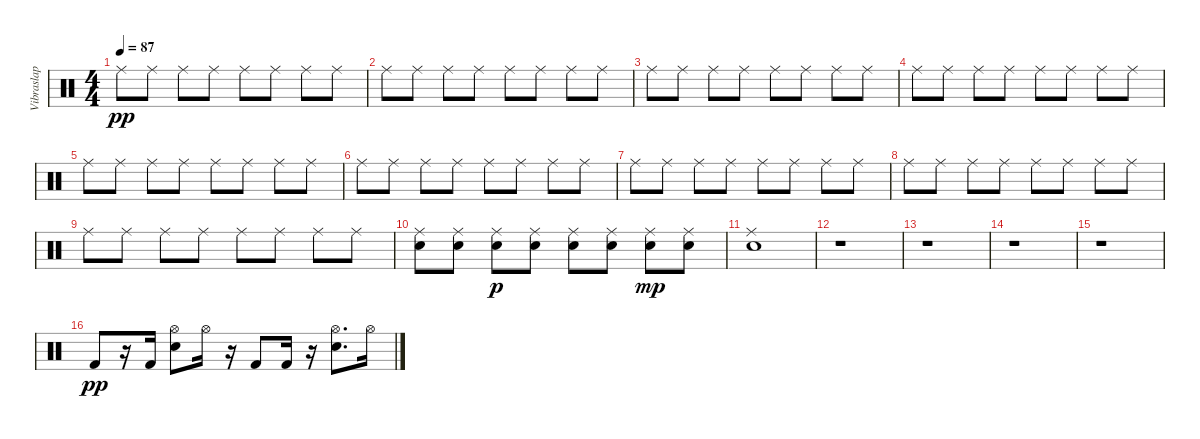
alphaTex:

\track ("Vibraslap" "Vibraslap") {instrument percussion}
\staff {score}
\articulation defaults
\ts (4 4)
\tempo 87
\clef neutral
\ks c "Ride (middle)".8{dy pp} "Ride (middle)".8 "Ride (middle)".8 "Ride (middle)".8 "Ride (middle)".8 "Ride (middle)".8 "Ride (middle)".8 "Ride (middle)".8
|
"Ride (middle)".8 "Ride (middle)".8 "Ride (middle)".8 "Ride (middle)".8 "Ride (middle)".8 "Ride (middle)".8 "Ride (middle)".8 "Ride (middle)".8 |
"Ride (middle)".8 "Ride (middle)".8 "Ride (middle)".8 "Ride (middle)".8 "Ride (middle)".8 "Ride (middle)".8 "Ride (middle)".8 "Ride (middle)".8 |
"Ride (middle)".8 "Ride (middle)".8 "Ride (middle)".8 "Ride (middle)".8 "Ride (middle)".8 "Ride (middle)".8 "Ride (middle)".8 "Ride (middle)".8 |
"Ride (middle)".8 "Ride (middle)".8 "Ride (middle)".8 "Ride (middle)".8 "Ride (middle)".8 "Ride (middle)".8 "Ride (middle)".8 "Ride (middle)".8 |
"Ride (middle)".8 "Ride (middle)".8 "Ride (middle)".8 "Ride (middle)".8 "Ride (middle)".8 "Ride (middle)".8 "Ride (middle)".8 "Ride (middle)".8 |
"Ride (middle)".8 "Ride (middle)".8 "Ride (middle)".8 "Ride (middle)".8 "Ride (middle)".8 "Ride (middle)".8 "Ride (middle)".8 "Ride (middle)".8 |
"Ride (middle)".8 "Ride (middle)".8 "Ride (middle)".8 "Ride (middle)".8 "Ride (middle)".8 "Ride (middle)".8 "Ride (middle)".8 "Ride (middle)".8 |
"Ride (middle)".8 "Ride (middle)".8 "Ride (middle)".8 "Ride (middle)".8 "Ride (middle)".8 "Ride (middle)".8 "Ride (middle)".8 "Ride (middle)".8 |
("Ride (middle)" "Snare (hit) 2").8 ("Ride (middle)" "Snare (hit) 2").8 ("Ride (middle)" "Snare (hit) 2").8{dy p} ("Ride (middle)" "Snare (hit) 2").8 ("Ride (middle)" "Snare (hit) 2").8 ("Ride (middle)" "Snare (hit) 2").8 ("Ride (middle)" "Snare (hit) 2").8{dy mp} ("Ride (middle)" "Snare (hit) 2").8 |
("Snare (hit) 2" "Ride (middle)").1 |
r.1 |
r.1 |
r.1 |
r.1 |
"Kick (hit) 2".8{dy pp} r.16 "Kick (hit) 2".16 ("Snare (hit) 2" "Hi-Hat (open)").8 "Hi-Hat (open)".16 r.16 "Kick (hit) 2".8 "Kick (hit) 2".16 r.16 ("Hi-Hat (open)" "Snare (hit) 2").8{d} "Hi-Hat (open)".16
